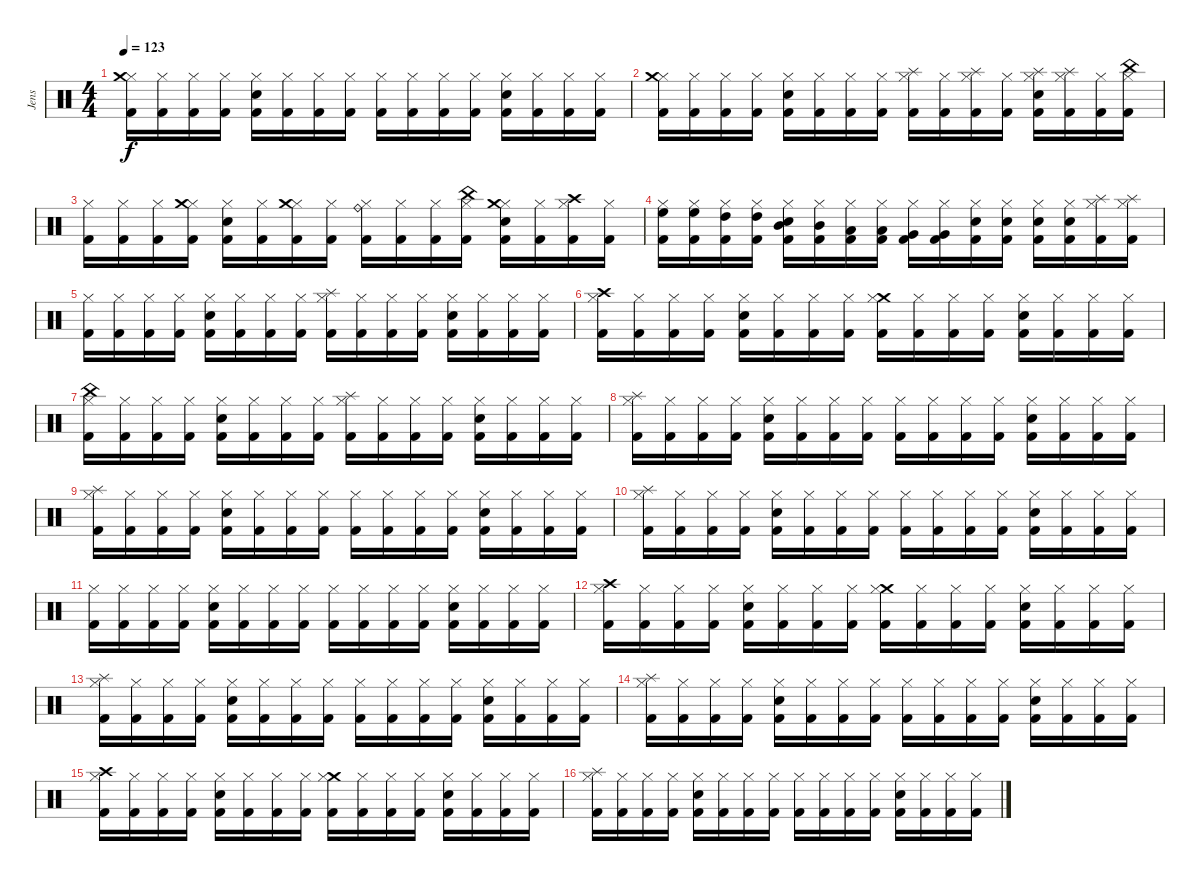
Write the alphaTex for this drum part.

\track ("Jens" "Jens") {instrument percussion}
\staff {score}
\articulation defaults
\ts (4 4)
\tempo 123
\clef neutral
\ks c
("Hi-Hat (closed)" "Crash medium (hit)" "Kick (hit) 2").16{dy f} ("Hi-Hat (closed)" "Kick (hit) 2").16 ("Hi-Hat (closed)" "Kick (hit) 2").16 ("Hi-Hat (closed)" "Kick (hit) 2").16 ("Hi-Hat (closed)" "Snare (hit) 2" "Kick (hit) 2").16 ("Hi-Hat (closed)" "Kick (hit) 2").16 ("Hi-Hat (closed)" "Kick (hit) 2").16 ("Hi-Hat (closed)" "Kick (hit) 2").16 ("Hi-Hat (closed)" "Kick (hit) 2").16 ("Hi-Hat (closed)" "Kick (hit) 2").16 ("Hi-Hat (closed)" "Kick (hit) 2").16 ("Hi-Hat (closed)" "Kick (hit) 2").16 ("Hi-Hat (closed)" "Snare (hit) 2" "Kick (hit) 2").16 ("Hi-Hat (closed)" "Kick (hit) 2").16 ("Hi-Hat (closed)" "Kick (hit) 2").16 ("Hi-Hat (closed)" "Kick (hit) 2").16 |
("Hi-Hat (closed)" "Crash medium (hit)" "Kick (hit) 2").16 ("Hi-Hat (closed)" "Kick (hit) 2").16 ("Hi-Hat (closed)" "Kick (hit) 2").16 ("Hi-Hat (closed)" "Kick (hit) 2").16 ("Hi-Hat (closed)" "Snare (hit) 2" "Kick (hit) 2").16 ("Hi-Hat (closed)" "Kick (hit) 2").16 ("Hi-Hat (closed)" "Kick (hit) 2").16 ("Hi-Hat (closed)" "Kick (hit) 2").16 ("Hi-Hat (closed)" "Splash (hit)" "Kick (hit) 2").16 ("Hi-Hat (closed)" "Kick (hit) 2").16 ("Hi-Hat (closed)" "Splash (hit)" "Kick (hit) 2").16 ("Hi-Hat (closed)" "Kick (hit) 2").16 ("Hi-Hat (closed)" "Splash (hit)" "Snare (hit) 2" "Kick (hit) 2").16 ("Hi-Hat (closed)" "Splash (hit)" "Kick (hit) 2").16 ("Hi-Hat (closed)" "Kick (hit) 2").16 ("Hi-Hat (closed)" "China (hit)" "Kick (hit) 2").16 |
("Hi-Hat (closed)" "Kick (hit) 2").16 ("Hi-Hat (closed)" "Kick (hit) 2").16 ("Hi-Hat (closed)" "Kick (hit) 2").16 ("Hi-Hat (closed)" "Crash medium (hit)" "Kick (hit) 2").16 ("Hi-Hat (closed)" "Snare (hit) 2" "Kick (hit) 2").16 ("Hi-Hat (closed)" "Kick (hit) 2").16 ("Hi-Hat (closed)" "Crash medium (hit)" "Kick (hit) 2").16 ("Hi-Hat (closed)" "Kick (hit) 2").16 ("Hi-Hat (closed)" "Ride (bell)" "Kick (hit) 2").16 ("Hi-Hat (closed)" "Kick (hit) 2").16 ("Hi-Hat (closed)" "Kick (hit) 2").16 ("Hi-Hat (closed)" "China (hit)" "Kick (hit) 2").16 ("Hi-Hat (closed)" "Crash medium (hit)" "Snare (hit) 2" "Kick (hit) 2").16 ("Hi-Hat (closed)" "Kick (hit) 2").16 ("Hi-Hat (closed)" "Crash high (hit)" "Kick (hit) 2").16 ("Hi-Hat (closed)" "Kick (hit) 2").16 |
("Hi-Hat (closed)" "High Floor Tom (hit)" "Kick (hit) 2").16 ("Hi-Hat (closed)" "High Floor Tom (hit)" "Kick (hit) 2").16 ("Hi-Hat (closed)" "High Tom (hit)" "Kick (hit) 2").16 ("Hi-Hat (closed)" "High Tom (hit)" "Kick (hit) 2").16 ("Hi-Hat (closed)" "Mid Tom (hit)" "Snare (hit) 2" "Kick (hit) 2").16 ("Hi-Hat (closed)" "Mid Tom (hit)" "Kick (hit) 2").16 ("Hi-Hat (closed)" "Low Tom (hit)" "Kick (hit) 2").16 ("Hi-Hat (closed)" "Low Tom (hit)" "Kick (hit) 2").16 ("Hi-Hat (closed)" "Very Low Tom (hit)" "Kick (hit) 2").16 ("Hi-Hat (closed)" "Very Low Tom (hit)" "Kick (hit) 2").16 ("Hi-Hat (closed)" "Snare (hit) 2" "Kick (hit) 2").16 ("Hi-Hat (closed)" "Snare (hit) 2" "Kick (hit) 2").16 ("Hi-Hat (closed)" "Snare (hit) 2" "Kick (hit) 2").16 ("Hi-Hat (closed)" "Snare (hit) 2" "Kick (hit) 2").16 ("Hi-Hat (closed)" "Splash (hit)" "Kick (hit) 2").16 ("Hi-Hat (closed)" "Splash (hit)" "Kick (hit) 2").16 |
("Hi-Hat (closed)" "Kick (hit) 2").16 ("Hi-Hat (closed)" "Kick (hit) 2").16 ("Hi-Hat (closed)" "Kick (hit) 2").16 ("Hi-Hat (closed)" "Kick (hit) 2").16 ("Hi-Hat (closed)" "Snare (hit) 2" "Kick (hit) 2").16 ("Hi-Hat (closed)" "Kick (hit) 2").16 ("Hi-Hat (closed)" "Kick (hit) 2").16 ("Hi-Hat (closed)" "Kick (hit) 2").16 ("Splash (hit)" "Hi-Hat (closed)" "Kick (hit) 2").16 ("Hi-Hat (closed)" "Kick (hit) 2").16 ("Hi-Hat (closed)" "Kick (hit) 2").16 ("Hi-Hat (closed)" "Kick (hit) 2").16 ("Hi-Hat (closed)" "Snare (hit) 2" "Kick (hit) 2").16 ("Hi-Hat (closed)" "Kick (hit) 2").16 ("Hi-Hat (closed)" "Kick (hit) 2").16 ("Hi-Hat (closed)" "Kick (hit) 2").16 |
("Crash high (hit)" "Hi-Hat (closed)" "Kick (hit) 2").16 ("Hi-Hat (closed)" "Kick (hit) 2").16 ("Hi-Hat (closed)" "Kick (hit) 2").16 ("Hi-Hat (closed)" "Kick (hit) 2").16 ("Hi-Hat (closed)" "Snare (hit) 2" "Kick (hit) 2").16 ("Hi-Hat (closed)" "Kick (hit) 2").16 ("Hi-Hat (closed)" "Kick (hit) 2").16 ("Hi-Hat (closed)" "Kick (hit) 2").16 ("Crash medium (hit)" "Hi-Hat (closed)" "Kick (hit) 2").16 ("Hi-Hat (closed)" "Kick (hit) 2").16 ("Hi-Hat (closed)" "Kick (hit) 2").16 ("Hi-Hat (closed)" "Kick (hit) 2").16 ("Hi-Hat (closed)" "Snare (hit) 2" "Kick (hit) 2").16 ("Hi-Hat (closed)" "Kick (hit) 2").16 ("Hi-Hat (closed)" "Kick (hit) 2").16 ("Hi-Hat (closed)" "Kick (hit) 2").16 |
("China (hit)" "Hi-Hat (closed)" "Kick (hit) 2").16 ("Hi-Hat (closed)" "Kick (hit) 2").16 ("Hi-Hat (closed)" "Kick (hit) 2").16 ("Hi-Hat (closed)" "Kick (hit) 2").16 ("Hi-Hat (closed)" "Snare (hit) 2" "Kick (hit) 2").16 ("Hi-Hat (closed)" "Kick (hit) 2").16 ("Hi-Hat (closed)" "Kick (hit) 2").16 ("Hi-Hat (closed)" "Kick (hit) 2").16 ("Splash (hit)" "Hi-Hat (closed)" "Kick (hit) 2").16 ("Hi-Hat (closed)" "Kick (hit) 2").16 ("Hi-Hat (closed)" "Kick (hit) 2").16 ("Hi-Hat (closed)" "Kick (hit) 2").16 ("Hi-Hat (closed)" "Snare (hit) 2" "Kick (hit) 2").16 ("Hi-Hat (closed)" "Kick (hit) 2").16 ("Hi-Hat (closed)" "Kick (hit) 2").16 ("Hi-Hat (closed)" "Kick (hit) 2").16 |
("Splash (hit)" "Hi-Hat (closed)" "Kick (hit) 2").16 ("Hi-Hat (closed)" "Kick (hit) 2").16 ("Hi-Hat (closed)" "Kick (hit) 2").16 ("Hi-Hat (closed)" "Kick (hit) 2").16 ("Hi-Hat (closed)" "Snare (hit) 2" "Kick (hit) 2").16 ("Hi-Hat (closed)" "Kick (hit) 2").16 ("Hi-Hat (closed)" "Kick (hit) 2").16 ("Hi-Hat (closed)" "Kick (hit) 2").16 ("Hi-Hat (closed)" "Kick (hit) 2").16 ("Hi-Hat (closed)" "Kick (hit) 2").16 ("Hi-Hat (closed)" "Kick (hit) 2").16 ("Hi-Hat (closed)" "Kick (hit) 2").16 ("Hi-Hat (closed)" "Snare (hit) 2" "Kick (hit) 2").16 ("Hi-Hat (closed)" "Kick (hit) 2").16 ("Hi-Hat (closed)" "Kick (hit) 2").16 ("Hi-Hat (closed)" "Kick (hit) 2").16 |
("Splash (hit)" "Hi-Hat (closed)" "Kick (hit) 2").16 ("Hi-Hat (closed)" "Kick (hit) 2").16 ("Hi-Hat (closed)" "Kick (hit) 2").16 ("Hi-Hat (closed)" "Kick (hit) 2").16 ("Hi-Hat (closed)" "Snare (hit) 2" "Kick (hit) 2").16 ("Hi-Hat (closed)" "Kick (hit) 2").16 ("Hi-Hat (closed)" "Kick (hit) 2").16 ("Hi-Hat (closed)" "Kick (hit) 2").16 ("Hi-Hat (closed)" "Kick (hit) 2").16 ("Hi-Hat (closed)" "Kick (hit) 2").16 ("Hi-Hat (closed)" "Kick (hit) 2").16 ("Hi-Hat (closed)" "Kick (hit) 2").16 ("Hi-Hat (closed)" "Snare (hit) 2" "Kick (hit) 2").16 ("Hi-Hat (closed)" "Kick (hit) 2").16 ("Hi-Hat (closed)" "Kick (hit) 2").16 ("Hi-Hat (closed)" "Kick (hit) 2").16 |
("Splash (hit)" "Hi-Hat (closed)" "Kick (hit) 2").16 ("Hi-Hat (closed)" "Kick (hit) 2").16 ("Hi-Hat (closed)" "Kick (hit) 2").16 ("Hi-Hat (closed)" "Kick (hit) 2").16 ("Hi-Hat (closed)" "Snare (hit) 2" "Kick (hit) 2").16 ("Hi-Hat (closed)" "Kick (hit) 2").16 ("Hi-Hat (closed)" "Kick (hit) 2").16 ("Hi-Hat (closed)" "Kick (hit) 2").16 ("Hi-Hat (closed)" "Kick (hit) 2").16 ("Hi-Hat (closed)" "Kick (hit) 2").16 ("Hi-Hat (closed)" "Kick (hit) 2").16 ("Hi-Hat (closed)" "Kick (hit) 2").16 ("Hi-Hat (closed)" "Snare (hit) 2" "Kick (hit) 2").16 ("Hi-Hat (closed)" "Kick (hit) 2").16 ("Hi-Hat (closed)" "Kick (hit) 2").16 ("Hi-Hat (closed)" "Kick (hit) 2").16 |
("Hi-Hat (closed)" "Kick (hit) 2").16 ("Hi-Hat (closed)" "Kick (hit) 2").16 ("Hi-Hat (closed)" "Kick (hit) 2").16 ("Hi-Hat (closed)" "Kick (hit) 2").16 ("Hi-Hat (closed)" "Snare (hit) 2" "Kick (hit) 2").16 ("Hi-Hat (closed)" "Kick (hit) 2").16 ("Hi-Hat (closed)" "Kick (hit) 2").16 ("Hi-Hat (closed)" "Kick (hit) 2").16 ("Hi-Hat (closed)" "Kick (hit) 2").16 ("Hi-Hat (closed)" "Kick (hit) 2").16 ("Hi-Hat (closed)" "Kick (hit) 2").16 ("Hi-Hat (closed)" "Kick (hit) 2").16 ("Hi-Hat (closed)" "Snare (hit) 2" "Kick (hit) 2").16 ("Hi-Hat (closed)" "Kick (hit) 2").16 ("Hi-Hat (closed)" "Kick (hit) 2").16 ("Hi-Hat (closed)" "Kick (hit) 2").16 |
("Crash high (hit)" "Hi-Hat (closed)" "Kick (hit) 2").16 ("Hi-Hat (closed)" "Kick (hit) 2").16 ("Hi-Hat (closed)" "Kick (hit) 2").16 ("Hi-Hat (closed)" "Kick (hit) 2").16 ("Hi-Hat (closed)" "Snare (hit) 2" "Kick (hit) 2").16 ("Hi-Hat (closed)" "Kick (hit) 2").16 ("Hi-Hat (closed)" "Kick (hit) 2").16 ("Hi-Hat (closed)" "Kick (hit) 2").16 ("Crash medium (hit)" "Hi-Hat (closed)" "Kick (hit) 2").16 ("Hi-Hat (closed)" "Kick (hit) 2").16 ("Hi-Hat (closed)" "Kick (hit) 2").16 ("Hi-Hat (closed)" "Kick (hit) 2").16 ("Hi-Hat (closed)" "Snare (hit) 2" "Kick (hit) 2").16 ("Hi-Hat (closed)" "Kick (hit) 2").16 ("Hi-Hat (closed)" "Kick (hit) 2").16 ("Hi-Hat (closed)" "Kick (hit) 2").16 |
("Splash (hit)" "Hi-Hat (closed)" "Kick (hit) 2").16 ("Hi-Hat (closed)" "Kick (hit) 2").16 ("Hi-Hat (closed)" "Kick (hit) 2").16 ("Hi-Hat (closed)" "Kick (hit) 2").16 ("Hi-Hat (closed)" "Snare (hit) 2" "Kick (hit) 2").16 ("Hi-Hat (closed)" "Kick (hit) 2").16 ("Hi-Hat (closed)" "Kick (hit) 2").16 ("Hi-Hat (closed)" "Kick (hit) 2").16 ("Hi-Hat (closed)" "Kick (hit) 2").16 ("Hi-Hat (closed)" "Kick (hit) 2").16 ("Hi-Hat (closed)" "Kick (hit) 2").16 ("Hi-Hat (closed)" "Kick (hit) 2").16 ("Hi-Hat (closed)" "Snare (hit) 2" "Kick (hit) 2").16 ("Hi-Hat (closed)" "Kick (hit) 2").16 ("Hi-Hat (closed)" "Kick (hit) 2").16 ("Hi-Hat (closed)" "Kick (hit) 2").16 |
("Splash (hit)" "Hi-Hat (closed)" "Kick (hit) 2").16 ("Hi-Hat (closed)" "Kick (hit) 2").16 ("Hi-Hat (closed)" "Kick (hit) 2").16 ("Hi-Hat (closed)" "Kick (hit) 2").16 ("Hi-Hat (closed)" "Snare (hit) 2" "Kick (hit) 2").16 ("Hi-Hat (closed)" "Kick (hit) 2").16 ("Hi-Hat (closed)" "Kick (hit) 2").16 ("Hi-Hat (closed)" "Kick (hit) 2").16 ("Hi-Hat (closed)" "Kick (hit) 2").16 ("Hi-Hat (closed)" "Kick (hit) 2").16 ("Hi-Hat (closed)" "Kick (hit) 2").16 ("Hi-Hat (closed)" "Kick (hit) 2").16 ("Hi-Hat (closed)" "Snare (hit) 2" "Kick (hit) 2").16 ("Hi-Hat (closed)" "Kick (hit) 2").16 ("Hi-Hat (closed)" "Kick (hit) 2").16 ("Hi-Hat (closed)" "Kick (hit) 2").16 |
("Crash high (hit)" "Hi-Hat (closed)" "Kick (hit) 2").16 ("Hi-Hat (closed)" "Kick (hit) 2").16 ("Hi-Hat (closed)" "Kick (hit) 2").16 ("Hi-Hat (closed)" "Kick (hit) 2").16 ("Hi-Hat (closed)" "Snare (hit) 2" "Kick (hit) 2").16 ("Hi-Hat (closed)" "Kick (hit) 2").16 ("Hi-Hat (closed)" "Kick (hit) 2").16 ("Hi-Hat (closed)" "Kick (hit) 2").16 ("Crash medium (hit)" "Hi-Hat (closed)" "Kick (hit) 2").16 ("Hi-Hat (closed)" "Kick (hit) 2").16 ("Hi-Hat (closed)" "Kick (hit) 2").16 ("Hi-Hat (closed)" "Kick (hit) 2").16 ("Hi-Hat (closed)" "Snare (hit) 2" "Kick (hit) 2").16 ("Hi-Hat (closed)" "Kick (hit) 2").16 ("Hi-Hat (closed)" "Kick (hit) 2").16 ("Hi-Hat (closed)" "Kick (hit) 2").16 |
("Splash (hit)" "Hi-Hat (closed)" "Kick (hit) 2").16 ("Hi-Hat (closed)" "Kick (hit) 2").16 ("Hi-Hat (closed)" "Kick (hit) 2").16 ("Hi-Hat (closed)" "Kick (hit) 2").16 ("Hi-Hat (closed)" "Snare (hit) 2" "Kick (hit) 2").16 ("Hi-Hat (closed)" "Kick (hit) 2").16 ("Hi-Hat (closed)" "Kick (hit) 2").16 ("Hi-Hat (closed)" "Kick (hit) 2").16 ("Hi-Hat (closed)" "Kick (hit) 2").16 ("Hi-Hat (closed)" "Kick (hit) 2").16 ("Hi-Hat (closed)" "Kick (hit) 2").16 ("Hi-Hat (closed)" "Kick (hit) 2").16 ("Hi-Hat (closed)" "Snare (hit) 2" "Kick (hit) 2").16 ("Hi-Hat (closed)" "Kick (hit) 2").16 ("Hi-Hat (closed)" "Kick (hit) 2").16 ("Hi-Hat (closed)" "Kick (hit) 2").16
